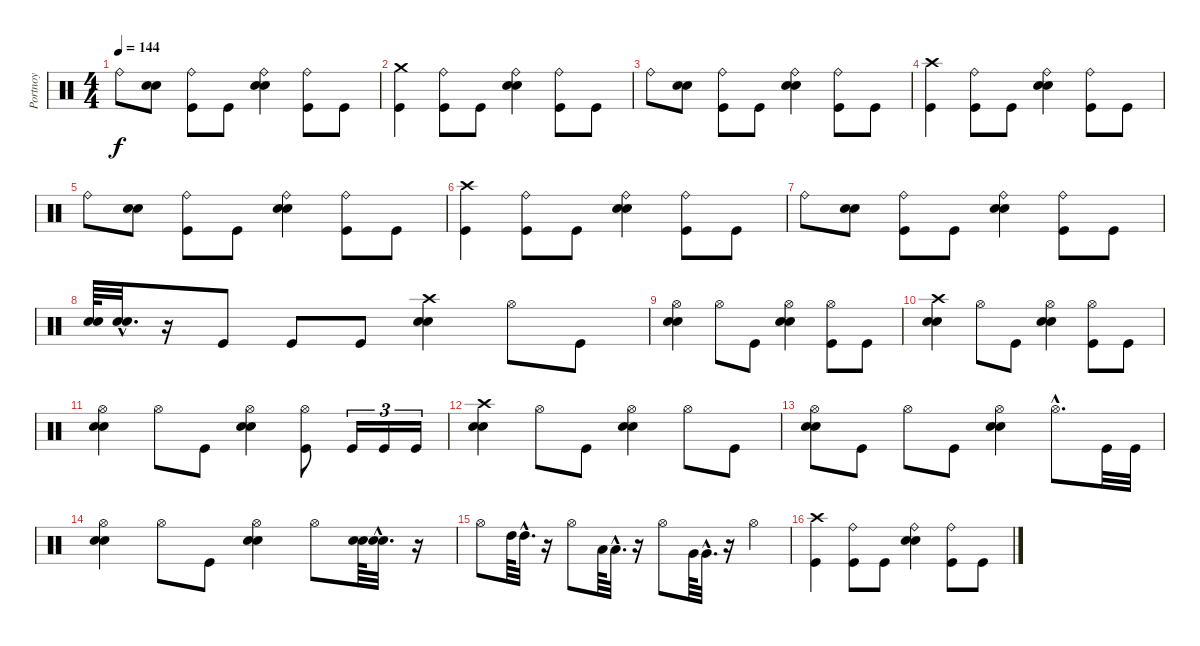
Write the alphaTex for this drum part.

\track ("Portnoy" "Portnoy") {instrument percussion}
\staff {score}
\articulation defaults
\ts (4 4)
\tempo 144
\clef neutral
\ks c "Ride (bell)".8{dy f}
("Snare (hit) 2" "Electric Snare (hit)").8 ("Ride (bell)" "Kick (hit)").8 "Kick (hit)".8 ("Ride (bell)" "Snare (hit) 2" "Electric Snare (hit)").4 ("Ride (bell)" "Kick (hit)").8 "Kick (hit)".8 |
("Crash medium (hit)" "Kick (hit)").4 ("Ride (bell)" "Kick (hit)").8 "Kick (hit)".8 ("Ride (bell)" "Snare (hit) 2" "Electric Snare (hit)").4 ("Ride (bell)" "Kick (hit)").8 "Kick (hit)".8 |
"Ride (bell)".8 ("Snare (hit) 2" "Electric Snare (hit)").8 ("Ride (bell)" "Kick (hit)").8 "Kick (hit)".8 ("Ride (bell)" "Snare (hit) 2" "Electric Snare (hit)").4 ("Ride (bell)" "Kick (hit)").8 "Kick (hit)".8 |
("Crash high (hit)" "Kick (hit)").4 ("Ride (bell)" "Kick (hit)").8 "Kick (hit)".8 ("Ride (bell)" "Snare (hit) 2" "Electric Snare (hit)").4 ("Ride (bell)" "Kick (hit)").8 "Kick (hit)".8 |
"Ride (bell)".8 ("Snare (hit) 2" "Electric Snare (hit)").8 ("Ride (bell)" "Kick (hit)").8 "Kick (hit)".8 ("Ride (bell)" "Snare (hit) 2" "Electric Snare (hit)").4 ("Ride (bell)" "Kick (hit)").8 "Kick (hit)".8 |
("Crash high (hit)" "Kick (hit)").4 ("Ride (bell)" "Kick (hit)").8 "Kick (hit)".8 ("Ride (bell)" "Snare (hit) 2" "Electric Snare (hit)").4 ("Ride (bell)" "Kick (hit)").8 "Kick (hit)".8 |
"Ride (bell)".8 ("Snare (hit) 2" "Electric Snare (hit)").8 ("Ride (bell)" "Kick (hit)").8 "Kick (hit)".8 ("Ride (bell)" "Snare (hit) 2" "Electric Snare (hit)").4 ("Ride (bell)" "Kick (hit)").8 "Kick (hit)".8 |
("Snare (hit) 2" "Electric Snare (hit)").64 ("Snare (hit) 2"{hac} "Electric Snare (hit)"{hac}).32{d} r.16 "Kick (hit)".8 "Kick (hit)".8 "Kick (hit)".8 ("Crash high (hit)" "Snare (hit) 2" "Electric Snare (hit)").4 "Hi-Hat (open)".8 "Kick (hit)".8 |
("Hi-Hat (open)" "Snare (hit) 2" "Electric Snare (hit)").4 "Hi-Hat (open)".8 "Kick (hit)".8 ("Hi-Hat (open)" "Snare (hit) 2" "Electric Snare (hit)").4 ("Hi-Hat (open)" "Kick (hit)").8 "Kick (hit)".8 |
("Crash high (hit)" "Snare (hit) 2" "Electric Snare (hit)").4 "Hi-Hat (open)".8 "Kick (hit)".8 ("Hi-Hat (open)" "Snare (hit) 2" "Electric Snare (hit)").4 ("Hi-Hat (open)" "Kick (hit)").8 "Kick (hit)".8 |
("Hi-Hat (open)" "Snare (hit) 2" "Electric Snare (hit)").4 "Hi-Hat (open)".8 "Kick (hit)".8 ("Hi-Hat (open)" "Snare (hit) 2" "Electric Snare (hit)").4 ("Hi-Hat (open)" "Kick (hit)").8 "Kick (hit)".16{tu (3 2)} "Kick (hit)".16{tu (3 2)} "Kick (hit)".16{tu (3 2)} |
("Crash high (hit)" "Snare (hit) 2" "Electric Snare (hit)").4 "Hi-Hat (open)".8 "Kick (hit)".8 ("Hi-Hat (open)" "Snare (hit) 2" "Electric Snare (hit)").4 "Hi-Hat (open)".8 "Kick (hit)".8 |
("Hi-Hat (open)" "Snare (hit) 2" "Electric Snare (hit)").8 "Kick (hit)".8 "Hi-Hat (open)".8 "Kick (hit)".8 ("Hi-Hat (open)" "Snare (hit) 2" "Electric Snare (hit)").4 "Hi-Hat (open)"{hac}.8{d} "Kick (hit)".32 "Kick (hit)".32 |
("Hi-Hat (open)" "Snare (hit) 2" "Electric Snare (hit)").4 "Hi-Hat (open)".8 "Kick (hit)".8 ("Hi-Hat (open)" "Snare (hit) 2" "Electric Snare (hit)").4 "Hi-Hat (open)".8 ("Snare (hit) 2" "Electric Snare (hit)").64 ("Snare (hit) 2"{hac} "Electric Snare (hit)"{hac}).32{d} r.16 |
"Hi-Hat (open)".8 "High Tom (hit)".64 "High Tom (hit)"{hac}.32{d} r.16 "Hi-Hat (open)".8 "Low Tom (hit)".64 "Low Tom (hit)"{hac}.32{d} r.16 "Hi-Hat (open)".8 "Very Low Tom (hit)".64 "Very Low Tom (hit)"{hac}.32{d} r.16 "Hi-Hat (open)".4 |
("Crash high (hit)" "Kick (hit)").4 ("Ride (bell)" "Kick (hit)").8 "Kick (hit)".8 ("Ride (bell)" "Snare (hit) 2" "Electric Snare (hit)").4 ("Ride (bell)" "Kick (hit)").8 "Kick (hit)".8
